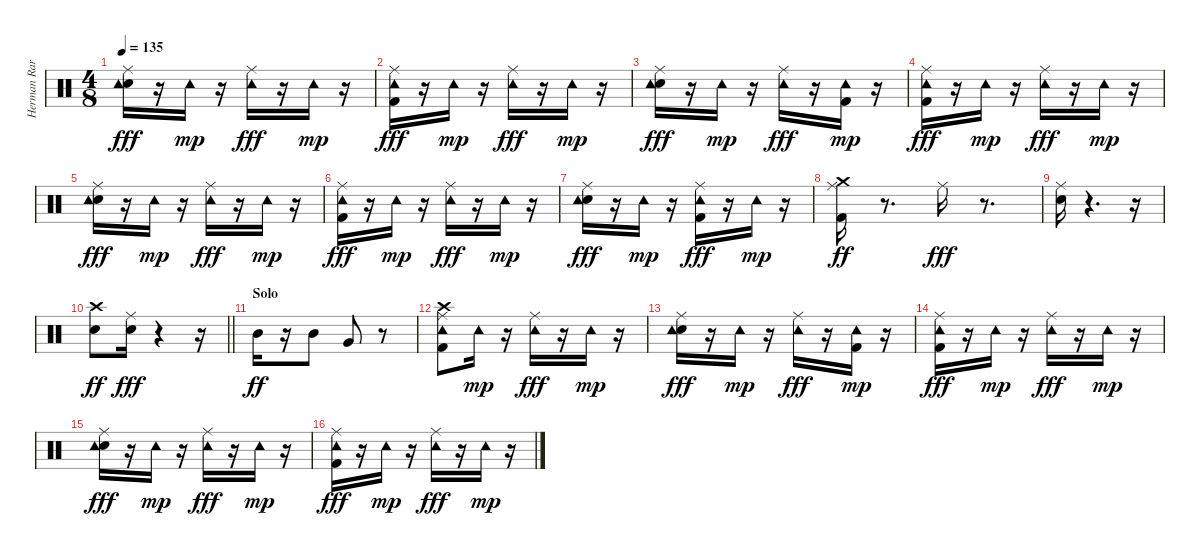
\track ("Herman Rarebell" "Herman Rar") {instrument percussion}
\staff {score}
\articulation defaults
\ts (4 8)
\tempo 135
\clef neutral
\ks c
("Snare (hit) 2" "Ride (middle)" "Tambourine (hit)").16{dy fff} r.16 "Tambourine (hit)".16{dy mp} r.16 ("Ride (middle)" "Tambourine (hit)").16{dy fff} r.16 "Tambourine (hit)".16{dy mp} r.16 |
("Kick (hit) 2" "Ride (middle)" "Tambourine (hit)").16{dy fff} r.16 "Tambourine (hit)".16{dy mp} r.16 ("Ride (middle)" "Tambourine (hit)").16{dy fff} r.16 "Tambourine (hit)".16{dy mp} r.16 |
("Snare (hit) 2" "Ride (middle)" "Tambourine (hit)").16{dy fff} r.16 "Tambourine (hit)".16{dy mp} r.16 ("Ride (middle)" "Tambourine (hit)").16{dy fff} r.16 ("Kick (hit) 2" "Tambourine (hit)").16{dy mp} r.16 |
("Kick (hit) 2" "Ride (middle)" "Tambourine (hit)").16{dy fff} r.16 "Tambourine (hit)".16{dy mp} r.16 ("Ride (middle)" "Tambourine (hit)").16{dy fff} r.16 "Tambourine (hit)".16{dy mp} r.16 |
("Snare (hit) 2" "Ride (middle)" "Tambourine (hit)").16{dy fff} r.16 "Tambourine (hit)".16{dy mp} r.16 ("Ride (middle)" "Tambourine (hit)").16{dy fff} r.16 "Tambourine (hit)".16{dy mp} r.16 |
("Kick (hit) 2" "Ride (middle)" "Tambourine (hit)").16{dy fff} r.16 "Tambourine (hit)".16{dy mp} r.16 ("Ride (middle)" "Tambourine (hit)").16{dy fff} r.16 "Tambourine (hit)".16{dy mp} r.16 |
("Snare (hit) 2" "Ride (middle)" "Tambourine (hit)").16{dy fff} r.16 "Tambourine (hit)".16{dy mp} r.16 ("Kick (hit) 2" "Ride (middle)" "Tambourine (hit)").16{dy fff} r.16 "Tambourine (hit)".16{dy mp} r.16 |
("Kick (hit) 2" "Ride (middle)" "Crash medium (hit)").16{dy ff} r.8{d} "Ride (middle)".16{dy fff} r.8{d} |
("Snare (hit) 2" "Ride (middle)").16 r.4{d} r.16 |
\barLineRight lightlight
("Snare (hit) 2" "Crash high (hit)").8{dy ff} ("Snare (hit) 2" "Ride (middle)").16{dy fff} r.4 r.16 |
\section ("" "Solo")
"Mid Tom (hit)".16{dy ff} r.16 "Mid Tom (hit)".8 "Very Low Tom (hit)".8 r.8 |
("Kick (hit) 2" "Ride (middle)" "Tambourine (hit)" "Crash high (hit)").8 "Tambourine (hit)".16{dy mp} r.16 ("Ride (middle)" "Tambourine (hit)").16{dy fff} r.16 "Tambourine (hit)".16{dy mp} r.16 |
("Snare (hit) 2" "Ride (middle)" "Tambourine (hit)").16{dy fff} r.16 "Tambourine (hit)".16{dy mp} r.16 ("Ride (middle)" "Tambourine (hit)").16{dy fff} r.16 ("Kick (hit) 2" "Tambourine (hit)").16{dy mp} r.16 |
("Kick (hit) 2" "Ride (middle)" "Tambourine (hit)").16{dy fff} r.16 "Tambourine (hit)".16{dy mp} r.16 ("Ride (middle)" "Tambourine (hit)").16{dy fff} r.16 "Tambourine (hit)".16{dy mp} r.16 |
("Snare (hit) 2" "Ride (middle)" "Tambourine (hit)").16{dy fff} r.16 "Tambourine (hit)".16{dy mp} r.16 ("Ride (middle)" "Tambourine (hit)").16{dy fff} r.16 "Tambourine (hit)".16{dy mp} r.16 |
("Kick (hit) 2" "Ride (middle)" "Tambourine (hit)").16{dy fff} r.16 "Tambourine (hit)".16{dy mp} r.16 ("Ride (middle)" "Tambourine (hit)").16{dy fff} r.16 "Tambourine (hit)".16{dy mp} r.16
